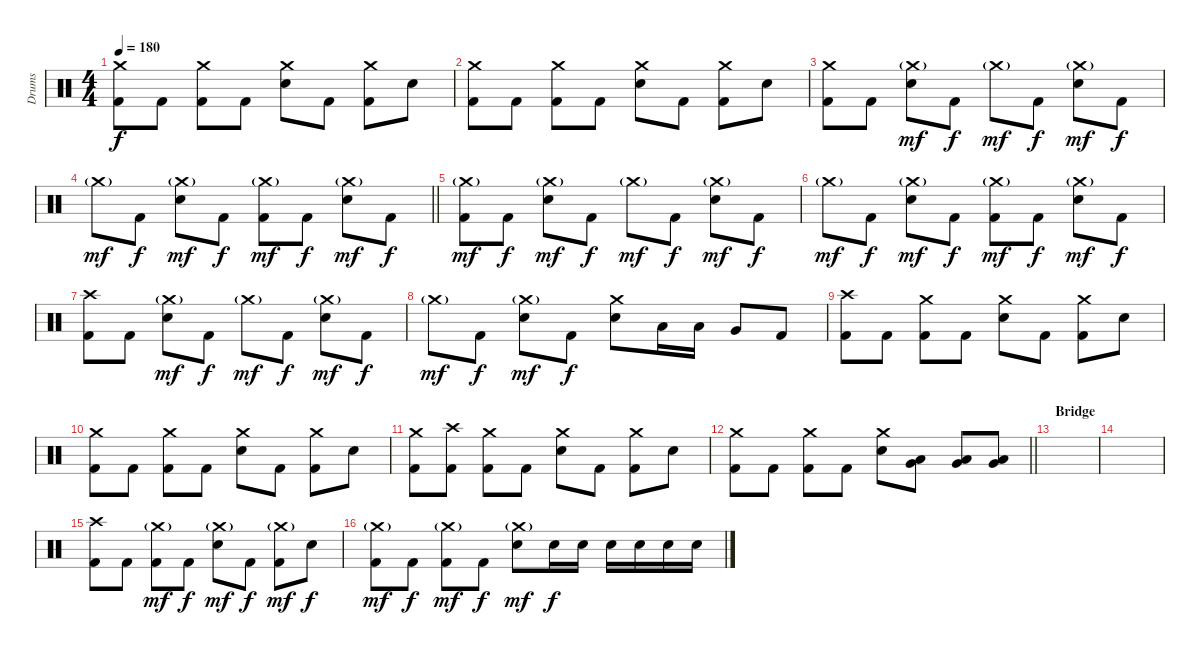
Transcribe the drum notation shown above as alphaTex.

\track ("Drums" "Drums") {instrument percussion}
\staff {score}
\articulation defaults
\ts (4 4)
\tempo 180
\clef neutral
\ks c
("Crash medium (hit)" "Kick (hit) 2").8{dy f} "Kick (hit) 2".8 ("Crash medium (hit)" "Kick (hit) 2").8 "Kick (hit) 2".8 ("Crash medium (hit)" "Electric Snare (hit)").8 "Kick (hit) 2".8 ("Crash medium (hit)" "Kick (hit) 2").8 "Electric Snare (hit)".8 |
("Crash medium (hit)" "Kick (hit) 2").8 "Kick (hit) 2".8 ("Crash medium (hit)" "Kick (hit) 2").8 "Kick (hit) 2".8 ("Crash medium (hit)" "Electric Snare (hit)").8 "Kick (hit) 2".8 ("Crash medium (hit)" "Kick (hit) 2").8 "Electric Snare (hit)".8 |
("Crash medium (hit)" "Kick (hit) 2").8 "Kick (hit) 2".8 ("Crash medium (hit)"{g} "Electric Snare (hit)").8{dy mf} "Kick (hit) 2".8{dy f} "Crash medium (hit)"{g}.8{dy mf} "Kick (hit) 2".8{dy f} ("Crash medium (hit)"{g} "Electric Snare (hit)").8{dy mf} "Kick (hit) 2".8{dy f} |
\barLineRight lightlight "Crash medium (hit)"{g}.8{dy mf} "Kick (hit) 2".8{dy f}
("Crash medium (hit)"{g} "Electric Snare (hit)").8{dy mf} "Kick (hit) 2".8{dy f} ("Crash medium (hit)"{g} "Kick (hit) 2").8{dy mf} "Kick (hit) 2".8{dy f} ("Crash medium (hit)"{g} "Electric Snare (hit)").8{dy mf} "Kick (hit) 2".8{dy f} |
("Crash medium (hit)"{g} "Kick (hit) 2").8{dy mf} "Kick (hit) 2".8{dy f} ("Crash medium (hit)"{g} "Electric Snare (hit)").8{dy mf} "Kick (hit) 2".8{dy f} "Crash medium (hit)"{g}.8{dy mf} "Kick (hit) 2".8{dy f} ("Crash medium (hit)"{g} "Electric Snare (hit)").8{dy mf} "Kick (hit) 2".8{dy f} |
"Crash medium (hit)"{g}.8{dy mf} "Kick (hit) 2".8{dy f} ("Crash medium (hit)"{g} "Electric Snare (hit)").8{dy mf} "Kick (hit) 2".8{dy f} ("Crash medium (hit)"{g} "Kick (hit) 2").8{dy mf} "Kick (hit) 2".8{dy f} ("Crash medium (hit)"{g} "Electric Snare (hit)").8{dy mf} "Kick (hit) 2".8{dy f} |
("Crash high (hit)" "Kick (hit) 2").8 "Kick (hit) 2".8 ("Crash medium (hit)"{g} "Electric Snare (hit)").8{dy mf} "Kick (hit) 2".8{dy f} "Crash medium (hit)"{g}.8{dy mf} "Kick (hit) 2".8{dy f} ("Crash medium (hit)"{g} "Electric Snare (hit)").8{dy mf} "Kick (hit) 2".8{dy f} |
"Crash medium (hit)"{g}.8{dy mf} "Kick (hit) 2".8{dy f} ("Crash medium (hit)"{g} "Electric Snare (hit)").8{dy mf} "Kick (hit) 2".8{dy f} ("Crash medium (hit)" "Electric Snare (hit)").8 "Low Tom (hit)".16 "Low Tom (hit)".16 "Very Low Tom (hit)".8 "Kick (hit) 2".8 |
("Crash high (hit)" "Kick (hit) 2").8 "Kick (hit) 2".8 ("Crash medium (hit)" "Kick (hit) 2").8 "Kick (hit) 2".8 ("Crash medium (hit)" "Electric Snare (hit)").8 "Kick (hit) 2".8 ("Crash medium (hit)" "Kick (hit) 2").8 "Electric Snare (hit)".8 |
("Crash medium (hit)" "Kick (hit) 2").8 "Kick (hit) 2".8 ("Crash medium (hit)" "Kick (hit) 2").8 "Kick (hit) 2".8 ("Crash medium (hit)" "Electric Snare (hit)").8 "Kick (hit) 2".8 ("Crash medium (hit)" "Kick (hit) 2").8 "Electric Snare (hit)".8 |
("Crash medium (hit)" "Kick (hit) 2").8 ("Crash high (hit)" "Kick (hit) 2").8 ("Crash medium (hit)" "Kick (hit) 2").8 "Kick (hit) 2".8 ("Crash medium (hit)" "Electric Snare (hit)").8 "Kick (hit) 2".8 ("Crash medium (hit)" "Kick (hit) 2").8 "Electric Snare (hit)".8 |
\barLineRight lightlight
("Crash medium (hit)" "Kick (hit) 2").8 "Kick (hit) 2".8 ("Crash medium (hit)" "Kick (hit) 2").8 "Kick (hit) 2".8 ("Crash medium (hit)" "Electric Snare (hit)").8 ("Very Low Tom (hit)" "Low Floor Tom (hit)").8 ("Very Low Tom (hit)" "Low Floor Tom (hit)").8 ("Very Low Tom (hit)" "Low Floor Tom (hit)").8 |
\section ("" "Bridge")
|
|
("Crash high (hit)" "Kick (hit) 2").8 "Kick (hit) 2".8 ("Crash medium (hit)"{g} "Kick (hit) 2").8{dy mf} "Kick (hit) 2".8{dy f} ("Crash medium (hit)"{g} "Electric Snare (hit)").8{dy mf} "Kick (hit) 2".8{dy f} ("Crash medium (hit)"{g} "Kick (hit) 2").8{dy mf} "Electric Snare (hit)".8{dy f} |
("Crash medium (hit)"{g} "Kick (hit) 2").8{dy mf} "Kick (hit) 2".8{dy f} ("Crash medium (hit)"{g} "Kick (hit) 2").8{dy mf} "Kick (hit) 2".8{dy f} ("Crash medium (hit)"{g} "Electric Snare (hit)").8{dy mf} "Electric Snare (hit)".16{dy f} "Electric Snare (hit)".16 "Electric Snare (hit)".16 "Electric Snare (hit)".16 "Electric Snare (hit)".16 "Electric Snare (hit)".16
